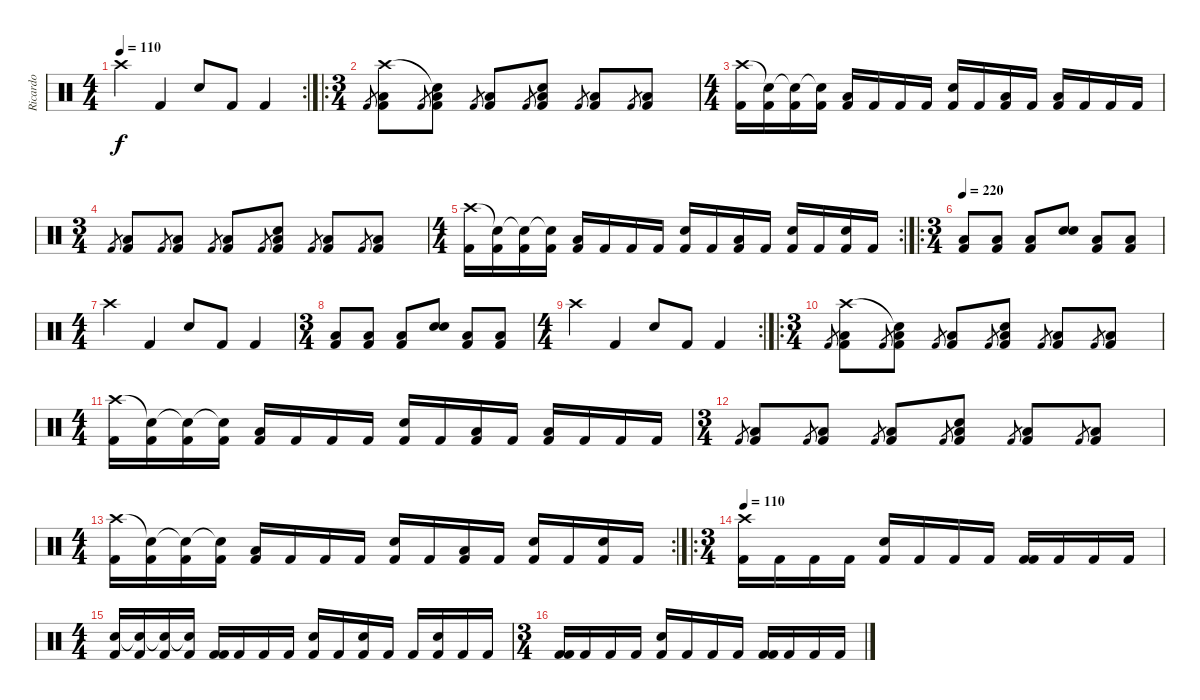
\track ("Ricardo" "Ricardo") {instrument percussion}
\staff {score}
\articulation defaults
\rc 2
\ts (4 4)
\tempo 110
\clef neutral
\ks c "Crash high (hit)".4{dy f} "Kick (hit) 2".4 "Snare (hit) 2".8 "Kick (hit) 2".8 "Kick (hit) 2".4
|
\ro
\ts (3 4)
"Kick (hit) 2".8{gr} ("Kick (hit) 2" "Low Floor Tom (hit)" "Crash high (hit)").8 "Kick (hit) 2".8{gr} ("Kick (hit) 2" "Low Floor Tom (hit)" "Snare (hit)"{t}).8 "Kick (hit) 2".8{gr} ("Kick (hit) 2" "Low Floor Tom (hit)").8 "Kick (hit) 2".8{gr} ("Snare (hit) 2" "Low Floor Tom (hit)" "Kick (hit) 2").8 "Kick (hit) 2".8{gr} ("Low Floor Tom (hit)" "Kick (hit) 2").8 "Kick (hit) 2".8{gr} ("Low Floor Tom (hit)" "Kick (hit) 2").8 |
\ts (4 4)
("Crash high (hit)" "Kick (hit) 2").16 ("Snare (hit)"{t} "Kick (hit) 2").16 ("Snare (hit)"{t} "Kick (hit) 2").16 ("Snare (hit)"{t} "Kick (hit) 2").16 ("Low Floor Tom (hit)" "Kick (hit) 2").16 "Kick (hit) 2".16 "Kick (hit) 2".16 "Kick (hit) 2".16 ("Snare (hit) 2" "Kick (hit) 2").16 "Kick (hit) 2".16 ("Low Floor Tom (hit)" "Kick (hit) 2").16 "Kick (hit) 2".16 ("Low Floor Tom (hit)" "Kick (hit) 2").16 "Kick (hit) 2".16 "Kick (hit) 2".16 "Kick (hit) 2".16 |
\ts (3 4)
"Kick (hit) 2".8{gr} ("Kick (hit) 2" "Low Floor Tom (hit)").8 "Kick (hit) 2".8{gr} ("Kick (hit) 2" "Low Floor Tom (hit)").8 "Kick (hit) 2".8{gr} ("Kick (hit) 2" "Low Floor Tom (hit)").8 "Kick (hit) 2".8{gr} ("Snare (hit) 2" "Low Floor Tom (hit)" "Kick (hit) 2").8 "Kick (hit) 2".8{gr} ("Low Floor Tom (hit)" "Kick (hit) 2").8 "Kick (hit) 2".8{gr} ("Low Floor Tom (hit)" "Kick (hit) 2").8 |
\rc 2
\ts (4 4)
("Crash high (hit)" "Kick (hit) 2").16 ("Snare (hit)"{t} "Kick (hit) 2").16 ("Snare (hit)"{t} "Kick (hit) 2").16 ("Snare (hit)"{t} "Kick (hit) 2").16 ("Low Floor Tom (hit)" "Kick (hit) 2").16 "Kick (hit) 2".16 "Kick (hit) 2".16 "Kick (hit) 2".16 ("Snare (hit) 2" "Kick (hit) 2").16 "Kick (hit) 2".16 ("Low Floor Tom (hit)" "Kick (hit) 2").16 "Kick (hit) 2".16 ("Snare (hit) 2" "Kick (hit) 2").16 "Kick (hit) 2".16 ("Snare (hit) 2" "Kick (hit) 2").16 "Kick (hit) 2".16 |
\ro
\ts (3 4)
\tempo 220
("Kick (hit) 2" "Low Floor Tom (hit)").8 ("Kick (hit) 2" "Low Floor Tom (hit)").8 ("Kick (hit) 2" "Low Floor Tom (hit)").8 ("Snare (hit) 2" "Electric Snare (hit)").8 ("Low Floor Tom (hit)" "Kick (hit) 2").8 ("Low Floor Tom (hit)" "Kick (hit) 2").8 |
\ts (4 4)
"Crash high (hit)".4 "Kick (hit) 2".4 "Snare (hit) 2".8 "Kick (hit) 2".8 "Kick (hit) 2".4 |
\ts (3 4)
("Kick (hit) 2" "Low Floor Tom (hit)").8 ("Kick (hit) 2" "Low Floor Tom (hit)").8 ("Kick (hit) 2" "Low Floor Tom (hit)").8 ("Snare (hit) 2" "Electric Snare (hit)").8 ("Low Floor Tom (hit)" "Kick (hit) 2").8 ("Low Floor Tom (hit)" "Kick (hit) 2").8 |
\rc 2
\ts (4 4)
"Crash high (hit)".4 "Kick (hit) 2".4 "Snare (hit) 2".8 "Kick (hit) 2".8 "Kick (hit) 2".4 |
\ro
\ts (3 4)
"Kick (hit) 2".8{gr} ("Kick (hit) 2" "Low Floor Tom (hit)" "Crash high (hit)").8 "Kick (hit) 2".8{gr} ("Kick (hit) 2" "Low Floor Tom (hit)" "Snare (hit)"{t}).8 "Kick (hit) 2".8{gr} ("Kick (hit) 2" "Low Floor Tom (hit)").8 "Kick (hit) 2".8{gr} ("Snare (hit) 2" "Low Floor Tom (hit)" "Kick (hit) 2").8 "Kick (hit) 2".8{gr} ("Low Floor Tom (hit)" "Kick (hit) 2").8 "Kick (hit) 2".8{gr} ("Low Floor Tom (hit)" "Kick (hit) 2").8 |
\ts (4 4)
("Crash high (hit)" "Kick (hit) 2").16 ("Snare (hit)"{t} "Kick (hit) 2").16 ("Snare (hit)"{t} "Kick (hit) 2").16 ("Snare (hit)"{t} "Kick (hit) 2").16 ("Low Floor Tom (hit)" "Kick (hit) 2").16 "Kick (hit) 2".16 "Kick (hit) 2".16 "Kick (hit) 2".16 ("Snare (hit) 2" "Kick (hit) 2").16 "Kick (hit) 2".16 ("Low Floor Tom (hit)" "Kick (hit) 2").16 "Kick (hit) 2".16 ("Low Floor Tom (hit)" "Kick (hit) 2").16 "Kick (hit) 2".16 "Kick (hit) 2".16 "Kick (hit) 2".16 |
\ts (3 4)
"Kick (hit) 2".8{gr} ("Kick (hit) 2" "Low Floor Tom (hit)").8 "Kick (hit) 2".8{gr} ("Kick (hit) 2" "Low Floor Tom (hit)").8 "Kick (hit) 2".8{gr} ("Kick (hit) 2" "Low Floor Tom (hit)").8 "Kick (hit) 2".8{gr} ("Snare (hit) 2" "Low Floor Tom (hit)" "Kick (hit) 2").8 "Kick (hit) 2".8{gr} ("Low Floor Tom (hit)" "Kick (hit) 2").8 "Kick (hit) 2".8{gr} ("Low Floor Tom (hit)" "Kick (hit) 2").8 |
\rc 2
\ts (4 4)
("Crash high (hit)" "Kick (hit) 2").16 ("Snare (hit)"{t} "Kick (hit) 2").16 ("Snare (hit)"{t} "Kick (hit) 2").16 ("Snare (hit)"{t} "Kick (hit) 2").16 ("Low Floor Tom (hit)" "Kick (hit) 2").16 "Kick (hit) 2".16 "Kick (hit) 2".16 "Kick (hit) 2".16 ("Snare (hit) 2" "Kick (hit) 2").16 "Kick (hit) 2".16 ("Low Floor Tom (hit)" "Kick (hit) 2").16 "Kick (hit) 2".16 ("Snare (hit) 2" "Kick (hit) 2").16 "Kick (hit) 2".16 ("Snare (hit) 2" "Kick (hit) 2").16 "Kick (hit) 2".16 |
\ro
\ts (3 4)
\tempo 110
("Crash high (hit)" "Kick (hit) 2").16 "Kick (hit) 2".16 "Kick (hit) 2".16 "Kick (hit) 2".16 ("Snare (hit) 2" "Kick (hit) 2").16 "Kick (hit) 2".16 "Kick (hit) 2".16 "Kick (hit) 2".16 ("Kick (hit) 2" "Kick (hit) 2").16 "Kick (hit) 2".16 "Kick (hit) 2".16 "Kick (hit) 2".16 |
\ts (4 4)
("Snare (hit) 2" "Kick (hit) 2").16 ("Snare (hit)"{t} "Kick (hit) 2").16 ("Snare (hit)"{t} "Kick (hit) 2").16 ("Snare (hit)"{t} "Kick (hit) 2").16 ("Kick (hit) 2" "Kick (hit) 2").16 "Kick (hit) 2".16 "Kick (hit) 2".16 "Kick (hit) 2".16 ("Snare (hit) 2" "Kick (hit) 2").16 "Kick (hit) 2".16 ("Snare (hit) 2" "Kick (hit) 2").16 "Kick (hit) 2".16 "Kick (hit) 2".16 ("Snare (hit) 2" "Kick (hit) 2").16 "Kick (hit) 2".16 "Kick (hit) 2".16 |
\ts (3 4)
("Kick (hit) 2" "Kick (hit) 2").16 "Kick (hit) 2".16 "Kick (hit) 2".16 "Kick (hit) 2".16 ("Snare (hit) 2" "Kick (hit) 2").16 "Kick (hit) 2".16 "Kick (hit) 2".16 "Kick (hit) 2".16 ("Kick (hit) 2" "Kick (hit) 2").16 "Kick (hit) 2".16 "Kick (hit) 2".16 "Kick (hit) 2".16
